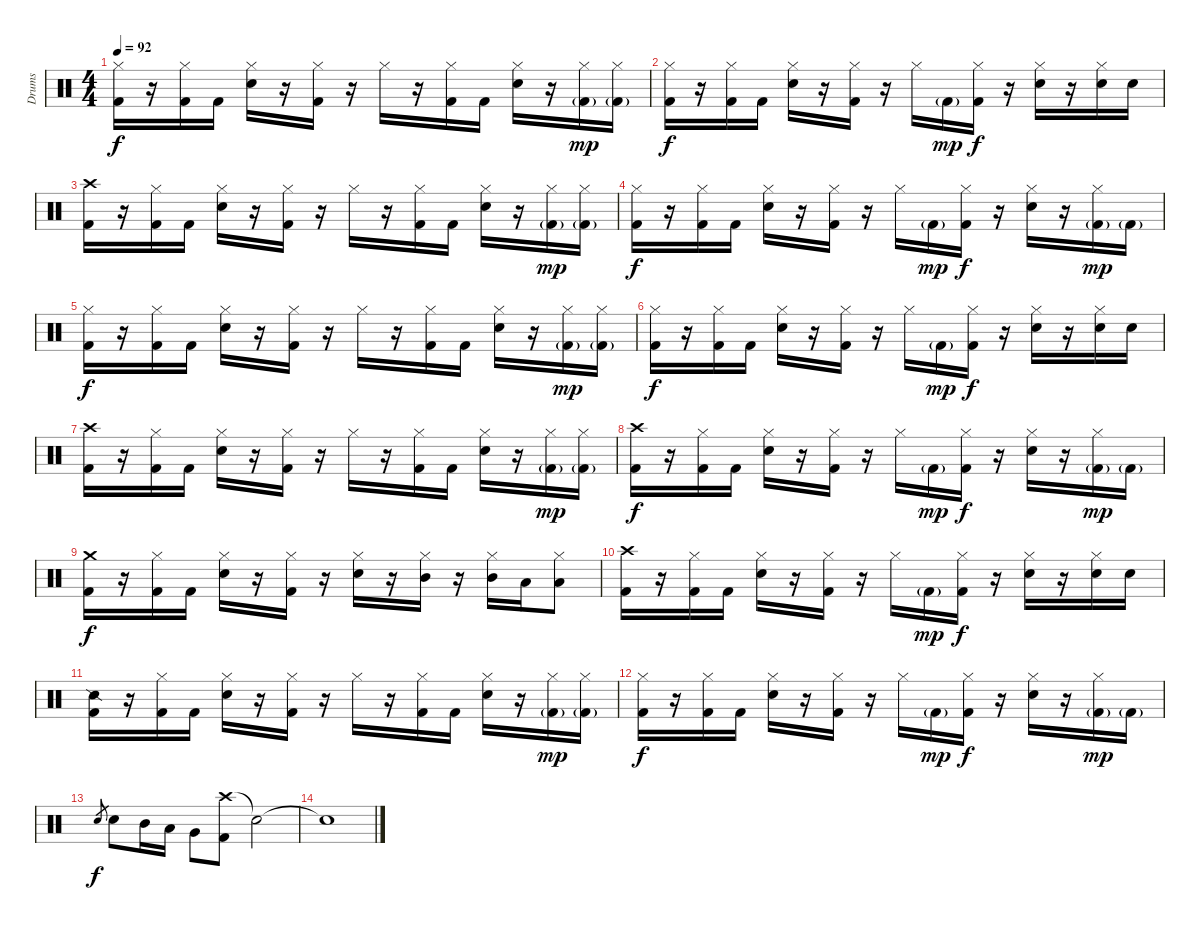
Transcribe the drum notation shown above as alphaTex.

\track ("Drums" "Drums") {instrument percussion}
\staff {score}
\articulation defaults
\ts (4 4)
\tempo 92
\clef neutral
\ks c
("Hi-Hat (closed)" "Kick (hit) 2").16{dy f} r.16 ("Hi-Hat (closed)" "Kick (hit) 2").16 "Kick (hit) 2".16 ("Hi-Hat (closed)" "Snare (hit) 2").16 r.16 ("Hi-Hat (closed)" "Kick (hit) 2").16 r.16 "Hi-Hat (closed)".16 r.16 ("Hi-Hat (closed)" "Kick (hit) 2").16 "Kick (hit) 2".16 ("Hi-Hat (closed)" "Snare (hit) 2").16 r.16 ("Hi-Hat (closed)" "Kick (hit) 2"{g}).16{dy mp} ("Hi-Hat (closed)" "Kick (hit) 2"{g}).16 |
("Hi-Hat (closed)" "Kick (hit) 2").16{dy f} r.16 ("Hi-Hat (closed)" "Kick (hit) 2").16 "Kick (hit) 2".16 ("Hi-Hat (closed)" "Snare (hit) 2").16 r.16 ("Hi-Hat (closed)" "Kick (hit) 2").16 r.16 "Hi-Hat (closed)".16 "Kick (hit) 2"{g}.16{dy mp} ("Hi-Hat (closed)" "Kick (hit) 2").16{dy f} r.16 ("Hi-Hat (closed)" "Snare (hit) 2").16 r.16 ("Hi-Hat (closed)" "Snare (hit) 2").16 "Snare (hit) 2".16 |
("Crash high (hit)" "Kick (hit) 2").16 r.16 ("Hi-Hat (closed)" "Kick (hit) 2").16 "Kick (hit) 2".16 ("Hi-Hat (closed)" "Snare (hit) 2").16 r.16 ("Hi-Hat (closed)" "Kick (hit) 2").16 r.16 "Hi-Hat (closed)".16 r.16 ("Hi-Hat (closed)" "Kick (hit) 2").16 "Kick (hit) 2".16 ("Hi-Hat (closed)" "Snare (hit) 2").16 r.16 ("Hi-Hat (closed)" "Kick (hit) 2"{g}).16{dy mp} ("Hi-Hat (closed)" "Kick (hit) 2"{g}).16 |
("Hi-Hat (closed)" "Kick (hit) 2").16{dy f} r.16 ("Hi-Hat (closed)" "Kick (hit) 2").16 "Kick (hit) 2".16 ("Hi-Hat (closed)" "Snare (hit) 2").16 r.16 ("Hi-Hat (closed)" "Kick (hit) 2").16 r.16 "Hi-Hat (closed)".16 "Kick (hit) 2"{g}.16{dy mp} ("Hi-Hat (closed)" "Kick (hit) 2").16{dy f} r.16 ("Hi-Hat (closed)" "Snare (hit) 2").16 r.16 ("Hi-Hat (closed)" "Kick (hit) 2"{g}).16{dy mp} "Kick (hit) 2"{g}.16 |
("Hi-Hat (closed)" "Kick (hit) 2").16{dy f} r.16 ("Hi-Hat (closed)" "Kick (hit) 2").16 "Kick (hit) 2".16 ("Hi-Hat (closed)" "Snare (hit) 2").16 r.16 ("Hi-Hat (closed)" "Kick (hit) 2").16 r.16 "Hi-Hat (closed)".16 r.16 ("Hi-Hat (closed)" "Kick (hit) 2").16 "Kick (hit) 2".16 ("Hi-Hat (closed)" "Snare (hit) 2").16 r.16 ("Hi-Hat (closed)" "Kick (hit) 2"{g}).16{dy mp} ("Hi-Hat (closed)" "Kick (hit) 2"{g}).16 |
("Hi-Hat (closed)" "Kick (hit) 2").16{dy f} r.16 ("Hi-Hat (closed)" "Kick (hit) 2").16 "Kick (hit) 2".16 ("Hi-Hat (closed)" "Snare (hit) 2").16 r.16 ("Hi-Hat (closed)" "Kick (hit) 2").16 r.16 "Hi-Hat (closed)".16 "Kick (hit) 2"{g}.16{dy mp} ("Hi-Hat (closed)" "Kick (hit) 2").16{dy f} r.16 ("Hi-Hat (closed)" "Snare (hit) 2").16 r.16 ("Hi-Hat (closed)" "Snare (hit) 2").16 "Snare (hit) 2".16 |
("Crash high (hit)" "Kick (hit) 2").16 r.16 ("Hi-Hat (closed)" "Kick (hit) 2").16 "Kick (hit) 2".16 ("Hi-Hat (closed)" "Snare (hit) 2").16 r.16 ("Hi-Hat (closed)" "Kick (hit) 2").16 r.16 "Hi-Hat (closed)".16 r.16 ("Hi-Hat (closed)" "Kick (hit) 2").16 "Kick (hit) 2".16 ("Hi-Hat (closed)" "Snare (hit) 2").16 r.16 ("Hi-Hat (closed)" "Kick (hit) 2"{g}).16{dy mp} ("Hi-Hat (closed)" "Kick (hit) 2"{g}).16 |
("Crash high (hit)" "Kick (hit) 2").16{dy f} r.16 ("Hi-Hat (closed)" "Kick (hit) 2").16 "Kick (hit) 2".16 ("Hi-Hat (closed)" "Snare (hit) 2").16 r.16 ("Hi-Hat (closed)" "Kick (hit) 2").16 r.16 "Hi-Hat (closed)".16 "Kick (hit) 2"{g}.16{dy mp} ("Hi-Hat (closed)" "Kick (hit) 2").16{dy f} r.16 ("Hi-Hat (closed)" "Snare (hit) 2").16 r.16 ("Hi-Hat (closed)" "Kick (hit) 2"{g}).16{dy mp} "Kick (hit) 2"{g}.16 |
("Crash medium (hit)" "Kick (hit) 2").16{dy f} r.16 ("Hi-Hat (closed)" "Kick (hit) 2").16 "Kick (hit) 2".16 ("Hi-Hat (closed)" "Snare (hit) 2").16 r.16 ("Hi-Hat (closed)" "Kick (hit) 2").16 r.16 ("Hi-Hat (closed)" "Snare (hit) 2").16 r.16 ("Hi-Hat (closed)" "Mid Tom (hit)").16 r.16 ("Hi-Hat (closed)" "Mid Tom (hit)").16 "Low Tom (hit)".16 ("Hi-Hat (closed)" "Low Floor Tom (hit)").8 |
("Crash high (hit)" "Kick (hit) 2").16 r.16 ("Hi-Hat (closed)" "Kick (hit) 2").16 "Kick (hit) 2".16 ("Hi-Hat (closed)" "Snare (hit) 2").16 r.16 ("Hi-Hat (closed)" "Kick (hit) 2").16 r.16 "Hi-Hat (closed)".16 "Kick (hit) 2"{g}.16{dy mp} ("Hi-Hat (closed)" "Kick (hit) 2").16{dy f} r.16 ("Hi-Hat (closed)" "Snare (hit) 2").16 r.16 ("Hi-Hat (closed)" "Snare (hit) 2").16 "Snare (hit) 2".16 |
("Snare (side stick) 2" "Kick (hit) 2").16 r.16 ("Hi-Hat (closed)" "Kick (hit) 2").16 "Kick (hit) 2".16 ("Hi-Hat (closed)" "Snare (hit) 2").16 r.16 ("Hi-Hat (closed)" "Kick (hit) 2").16 r.16 "Hi-Hat (closed)".16 r.16 ("Hi-Hat (closed)" "Kick (hit) 2").16 "Kick (hit) 2".16 ("Hi-Hat (closed)" "Snare (hit) 2").16 r.16 ("Hi-Hat (closed)" "Kick (hit) 2"{g}).16{dy mp} ("Hi-Hat (closed)" "Kick (hit) 2"{g}).16 |
("Hi-Hat (closed)" "Kick (hit) 2").16{dy f} r.16 ("Hi-Hat (closed)" "Kick (hit) 2").16 "Kick (hit) 2".16 ("Hi-Hat (closed)" "Snare (hit) 2").16 r.16 ("Hi-Hat (closed)" "Kick (hit) 2").16 r.16 "Hi-Hat (closed)".16 "Kick (hit) 2"{g}.16{dy mp} ("Hi-Hat (closed)" "Kick (hit) 2").16{dy f} r.16 ("Hi-Hat (closed)" "Snare (hit) 2").16 r.16 ("Hi-Hat (closed)" "Kick (hit) 2"{g}).16{dy mp} "Kick (hit) 2"{g}.16 |
"Snare (hit) 2".8{gr dy f} "Snare (hit) 2".8 "Mid Tom (hit)".16 "Low Tom (hit)".16 "Very Low Tom (hit)".8 ("Crash high (hit)" "Kick (hit) 2").8 "Snare (hit)"{t}.2 |
"Snare (hit)"{t}.1
